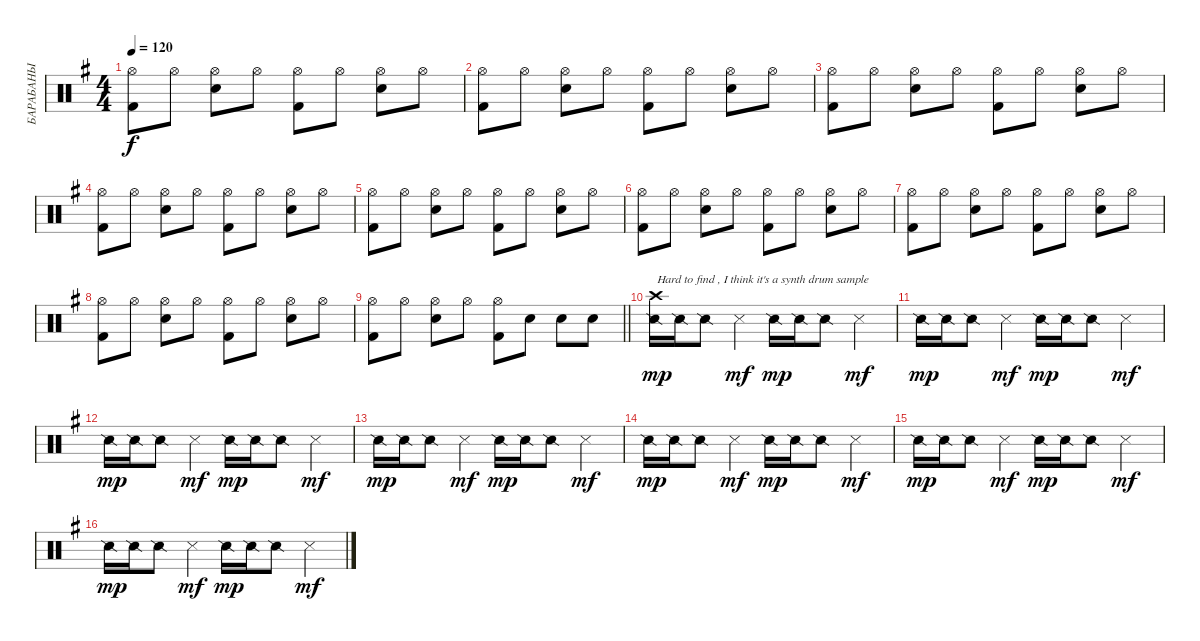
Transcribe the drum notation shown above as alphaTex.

\track ("БАРАБАНЫ" "БАРАБАНЫ") {instrument percussion}
\staff {score}
\articulation defaults
\ts (4 4)
\tempo 120
\clef neutral
\ks g
("Hi-Hat (open)" "Kick (hit) 2").8{dy f} "Hi-Hat (open)".8 ("Hi-Hat (open)" "Electric Snare (hit)").8 "Hi-Hat (open)".8 ("Hi-Hat (open)" "Kick (hit) 2").8 "Hi-Hat (open)".8 ("Hi-Hat (open)" "Electric Snare (hit)").8 "Hi-Hat (open)".8 |
("Hi-Hat (open)" "Kick (hit) 2").8 "Hi-Hat (open)".8 ("Hi-Hat (open)" "Electric Snare (hit)").8 "Hi-Hat (open)".8 ("Hi-Hat (open)" "Kick (hit) 2").8 "Hi-Hat (open)".8 ("Hi-Hat (open)" "Electric Snare (hit)").8 "Hi-Hat (open)".8 |
("Hi-Hat (open)" "Kick (hit) 2").8 "Hi-Hat (open)".8 ("Hi-Hat (open)" "Electric Snare (hit)").8 "Hi-Hat (open)".8 ("Hi-Hat (open)" "Kick (hit) 2").8 "Hi-Hat (open)".8 ("Hi-Hat (open)" "Electric Snare (hit)").8 "Hi-Hat (open)".8 |
("Hi-Hat (open)" "Kick (hit) 2").8 "Hi-Hat (open)".8 ("Hi-Hat (open)" "Electric Snare (hit)").8 "Hi-Hat (open)".8 ("Hi-Hat (open)" "Kick (hit) 2").8 "Hi-Hat (open)".8 ("Hi-Hat (open)" "Electric Snare (hit)").8 "Hi-Hat (open)".8 |
("Hi-Hat (open)" "Kick (hit) 2").8 "Hi-Hat (open)".8 ("Hi-Hat (open)" "Electric Snare (hit)").8 "Hi-Hat (open)".8 ("Hi-Hat (open)" "Kick (hit) 2").8 "Hi-Hat (open)".8 ("Hi-Hat (open)" "Electric Snare (hit)").8 "Hi-Hat (open)".8 |
("Hi-Hat (open)" "Kick (hit) 2").8 "Hi-Hat (open)".8 ("Hi-Hat (open)" "Electric Snare (hit)").8 "Hi-Hat (open)".8 ("Hi-Hat (open)" "Kick (hit) 2").8 "Hi-Hat (open)".8 ("Hi-Hat (open)" "Electric Snare (hit)").8 "Hi-Hat (open)".8 |
("Hi-Hat (open)" "Kick (hit) 2").8 "Hi-Hat (open)".8 ("Hi-Hat (open)" "Electric Snare (hit)").8 "Hi-Hat (open)".8 ("Hi-Hat (open)" "Kick (hit) 2").8 "Hi-Hat (open)".8 ("Hi-Hat (open)" "Electric Snare (hit)").8 "Hi-Hat (open)".8 |
("Hi-Hat (open)" "Kick (hit) 2").8 "Hi-Hat (open)".8 ("Hi-Hat (open)" "Electric Snare (hit)").8 "Hi-Hat (open)".8 ("Hi-Hat (open)" "Kick (hit) 2").8 "Hi-Hat (open)".8 ("Hi-Hat (open)" "Electric Snare (hit)").8 "Hi-Hat (open)".8 |
\barLineRight lightlight
("Hi-Hat (open)" "Kick (hit) 2").8 "Hi-Hat (open)".8 ("Hi-Hat (open)" "Electric Snare (hit)").8 "Hi-Hat (open)".8 ("Hi-Hat (open)" "Kick (hit) 2").8 "Electric Snare (hit)".8 "Electric Snare (hit)".8 "Electric Snare (hit)".8 |
("Crash high (hit)" "Snare (side stick) 2").16{txt "Hard to find , I think it's a synth drum sample" dy mp} "Snare (side stick) 2".16 "Snare (side stick) 2".8 "Snare (side stick) 3".4{dy mf} "Snare (side stick) 2".16{dy mp} "Snare (side stick) 2".16 "Snare (side stick) 2".8 "Snare (side stick) 3".4{dy mf} |
"Snare (side stick) 2".16{dy mp} "Snare (side stick) 2".16 "Snare (side stick) 2".8 "Snare (side stick) 3".4{dy mf} "Snare (side stick) 2".16{dy mp} "Snare (side stick) 2".16 "Snare (side stick) 2".8 "Snare (side stick) 3".4{dy mf} |
"Snare (side stick) 2".16{dy mp} "Snare (side stick) 2".16 "Snare (side stick) 2".8 "Snare (side stick) 3".4{dy mf} "Snare (side stick) 2".16{dy mp} "Snare (side stick) 2".16 "Snare (side stick) 2".8 "Snare (side stick) 3".4{dy mf} |
"Snare (side stick) 2".16{dy mp} "Snare (side stick) 2".16 "Snare (side stick) 2".8 "Snare (side stick) 3".4{dy mf} "Snare (side stick) 2".16{dy mp} "Snare (side stick) 2".16 "Snare (side stick) 2".8 "Snare (side stick) 3".4{dy mf} |
"Snare (side stick) 2".16{dy mp} "Snare (side stick) 2".16 "Snare (side stick) 2".8 "Snare (side stick) 3".4{dy mf} "Snare (side stick) 2".16{dy mp} "Snare (side stick) 2".16 "Snare (side stick) 2".8 "Snare (side stick) 3".4{dy mf} |
"Snare (side stick) 2".16{dy mp} "Snare (side stick) 2".16 "Snare (side stick) 2".8 "Snare (side stick) 3".4{dy mf} "Snare (side stick) 2".16{dy mp} "Snare (side stick) 2".16 "Snare (side stick) 2".8 "Snare (side stick) 3".4{dy mf} |
"Snare (side stick) 2".16{dy mp} "Snare (side stick) 2".16 "Snare (side stick) 2".8 "Snare (side stick) 3".4{dy mf} "Snare (side stick) 2".16{dy mp} "Snare (side stick) 2".16 "Snare (side stick) 2".8 "Snare (side stick) 3".4{dy mf}
